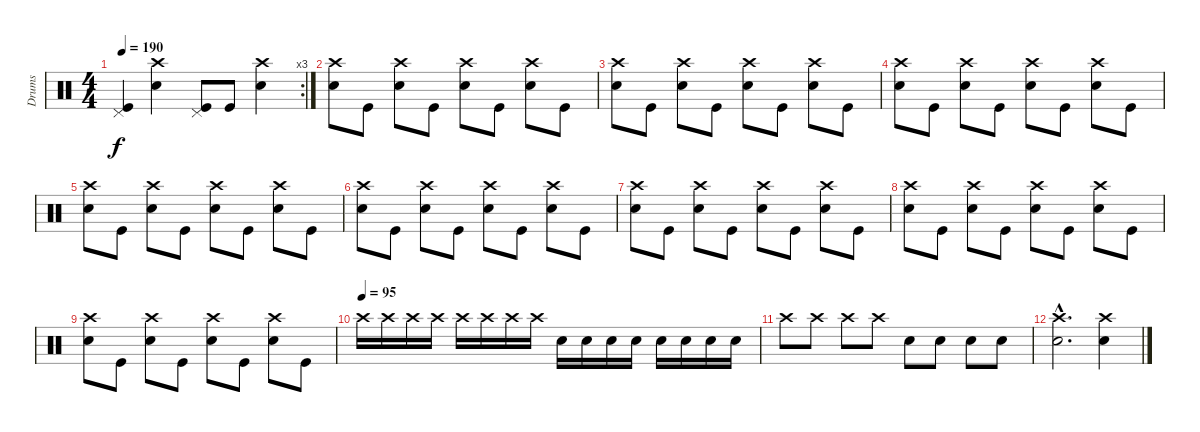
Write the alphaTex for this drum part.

\track ("Drums" "Drums") {instrument percussion}
\staff {score}
\articulation defaults
\rc 3
\ts (4 4)
\tempo 190
\clef neutral
\ks c
("Pedal Hi-Hat (hit)" "Kick (hit)").4{dy f} ("Crash high (hit)" "Electric Snare (hit)").4 ("Pedal Hi-Hat (hit)" "Kick (hit)").8 "Kick (hit)".8 ("Crash high (hit)" "Electric Snare (hit)").4 |
("Crash high (hit)" "Electric Snare (hit)").8 "Kick (hit)".8 ("Crash high (hit)" "Electric Snare (hit)").8 "Kick (hit)".8 ("Crash high (hit)" "Electric Snare (hit)").8 "Kick (hit)".8 ("Crash high (hit)" "Electric Snare (hit)").8 "Kick (hit)".8 |
("Crash high (hit)" "Electric Snare (hit)").8 "Kick (hit)".8 ("Crash high (hit)" "Electric Snare (hit)").8 "Kick (hit)".8 ("Crash high (hit)" "Electric Snare (hit)").8 "Kick (hit)".8 ("Crash high (hit)" "Electric Snare (hit)").8 "Kick (hit)".8 |
("Crash high (hit)" "Electric Snare (hit)").8 "Kick (hit)".8 ("Crash high (hit)" "Electric Snare (hit)").8 "Kick (hit)".8 ("Crash high (hit)" "Electric Snare (hit)").8 "Kick (hit)".8 ("Crash high (hit)" "Electric Snare (hit)").8 "Kick (hit)".8 |
("Crash high (hit)" "Electric Snare (hit)").8 "Kick (hit)".8 ("Crash high (hit)" "Electric Snare (hit)").8 "Kick (hit)".8 ("Crash high (hit)" "Electric Snare (hit)").8 "Kick (hit)".8 ("Crash high (hit)" "Electric Snare (hit)").8 "Kick (hit)".8 |
("Crash high (hit)" "Electric Snare (hit)").8 "Kick (hit)".8 ("Crash high (hit)" "Electric Snare (hit)").8 "Kick (hit)".8 ("Crash high (hit)" "Electric Snare (hit)").8 "Kick (hit)".8 ("Crash high (hit)" "Electric Snare (hit)").8 "Kick (hit)".8 |
("Crash high (hit)" "Electric Snare (hit)").8 "Kick (hit)".8 ("Crash high (hit)" "Electric Snare (hit)").8 "Kick (hit)".8 ("Crash high (hit)" "Electric Snare (hit)").8 "Kick (hit)".8 ("Crash high (hit)" "Electric Snare (hit)").8 "Kick (hit)".8 |
("Crash high (hit)" "Electric Snare (hit)").8 "Kick (hit)".8 ("Crash high (hit)" "Electric Snare (hit)").8 "Kick (hit)".8 ("Crash high (hit)" "Electric Snare (hit)").8 "Kick (hit)".8 ("Crash high (hit)" "Electric Snare (hit)").8 "Kick (hit)".8 |
("Crash high (hit)" "Electric Snare (hit)").8 "Kick (hit)".8 ("Crash high (hit)" "Electric Snare (hit)").8 "Kick (hit)".8 ("Crash high (hit)" "Electric Snare (hit)").8 "Kick (hit)".8 ("Crash high (hit)" "Electric Snare (hit)").8 "Kick (hit)".8 |
\tempo (95)
"Crash high (hit)".16 "Crash high (hit)".16 "Crash high (hit)".16 "Crash high (hit)".16 "Crash high (hit)".16 "Crash high (hit)".16 "Crash high (hit)".16 "Crash high (hit)".16 "Electric Snare (hit)".16 "Electric Snare (hit)".16 "Electric Snare (hit)".16 "Electric Snare (hit)".16 "Electric Snare (hit)".16 "Electric Snare (hit)".16 "Electric Snare (hit)".16 "Electric Snare (hit)".16 |
"Crash high (hit)".8 "Crash high (hit)".8 "Crash high (hit)".8 "Crash high (hit)".8 "Electric Snare (hit)".8 "Electric Snare (hit)".8 "Electric Snare (hit)".8 "Electric Snare (hit)".8 |
("Crash high (hit)"{hac} "Electric Snare (hit)"{hac}).2{d} ("Crash high (hit)" "Electric Snare (hit)").4
